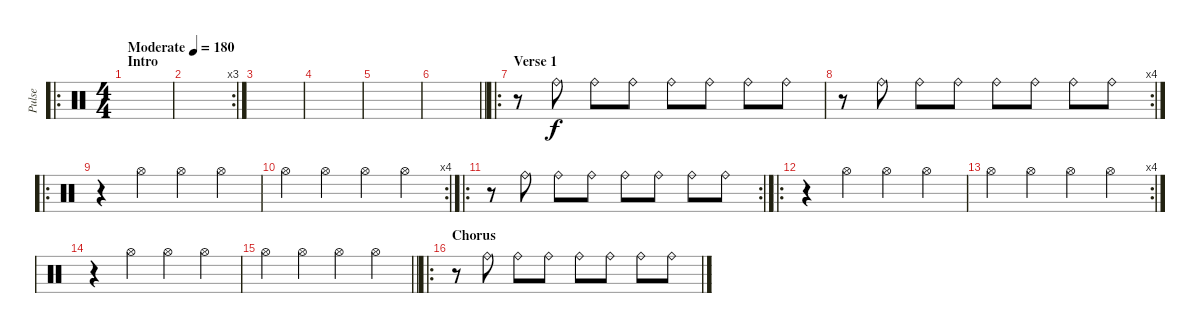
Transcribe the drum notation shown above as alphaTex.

\track ("Pulse" "Pulse") {instrument percussion}
\staff {score}
\articulation defaults
\ro
\ts (4 4)
\section ("" "Intro")
\tempo (180 "Moderate")
\clef neutral
\ks c
|
\rc 3
|
|
|
|
\barLineRight lightlight
|
\ro
\section ("" "Verse 1")
r.8 "Ride (bell)".8 "Ride (bell)".8 "Ride (bell)".8 "Ride (bell)".8 "Ride (bell)".8 "Ride (bell)".8 "Ride (bell)".8 |
\rc 4
r.8 "Ride (bell)".8 "Ride (bell)".8 "Ride (bell)".8 "Ride (bell)".8 "Ride (bell)".8 "Ride (bell)".8 "Ride (bell)".8 |
\ro
r.4 "Hi-Hat (open)".4 "Hi-Hat (open)".4 "Hi-Hat (open)".4 |
\rc 4 "Hi-Hat (open)".4 "Hi-Hat (open)".4 "Hi-Hat (open)".4 "Hi-Hat (open)".4
|
\ro
\rc 2
r.8 "Ride (bell)".8 "Ride (bell)".8 "Ride (bell)".8 "Ride (bell)".8 "Ride (bell)".8 "Ride (bell)".8 "Ride (bell)".8 |
\ro
r.4 "Hi-Hat (open)".4 "Hi-Hat (open)".4 "Hi-Hat (open)".4 |
\rc 4 "Hi-Hat (open)".4 "Hi-Hat (open)".4 "Hi-Hat (open)".4 "Hi-Hat (open)".4
|
r.4 "Hi-Hat (open)".4 "Hi-Hat (open)".4 "Hi-Hat (open)".4 |
\barLineRight lightlight "Hi-Hat (open)".4 "Hi-Hat (open)".4 "Hi-Hat (open)".4 "Hi-Hat (open)".4
|
\ro
\section ("" "Chorus")
r.8 "Ride (bell)".8 "Ride (bell)".8 "Ride (bell)".8 "Ride (bell)".8 "Ride (bell)".8 "Ride (bell)".8 "Ride (bell)".8
